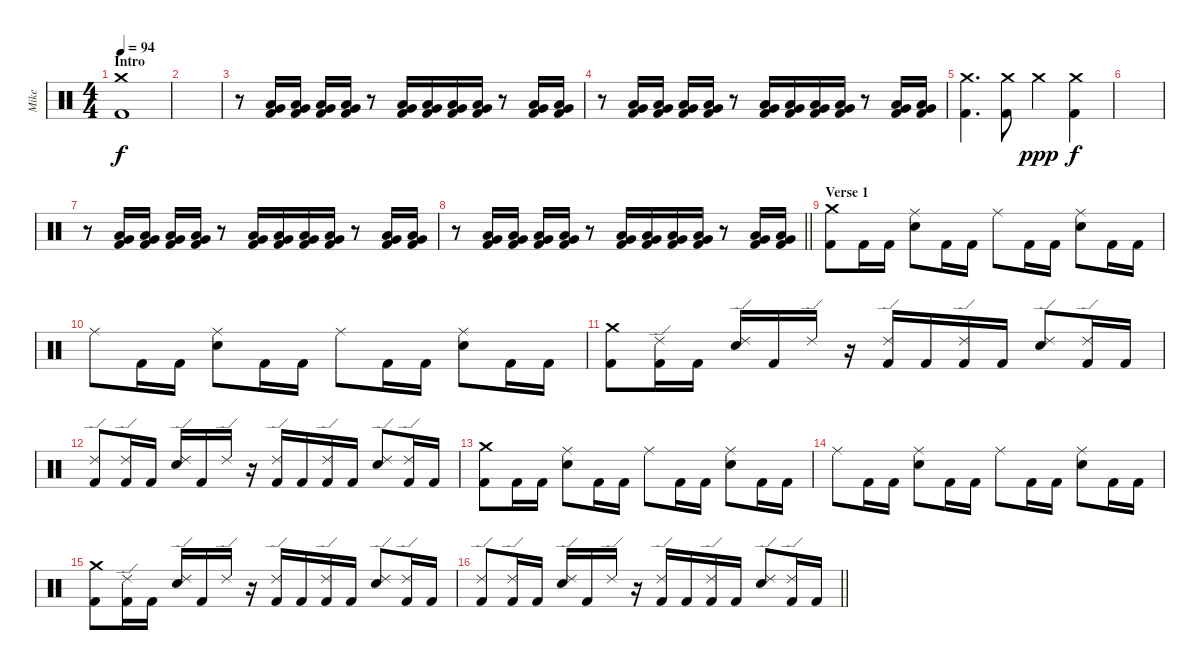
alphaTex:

\track ("Mike" "Mike") {instrument percussion}
\staff {score}
\articulation defaults
\ts (4 4)
\section ("" "Intro")
\tempo 94
\clef neutral
\ks c
("Crash medium (hit)" "Kick (hit) 2").1{dy f} |
|
r.8 ("Low Floor Tom (hit)" "Very Low Tom (hit)" "Kick (hit) 2").16 ("Low Floor Tom (hit)" "Very Low Tom (hit)" "Kick (hit) 2").16 ("Low Floor Tom (hit)" "Very Low Tom (hit)" "Kick (hit) 2").16 ("Low Floor Tom (hit)" "Very Low Tom (hit)" "Kick (hit) 2").16 r.8 ("Low Floor Tom (hit)" "Very Low Tom (hit)" "Kick (hit) 2").16 ("Low Floor Tom (hit)" "Very Low Tom (hit)" "Kick (hit) 2").16 ("Low Floor Tom (hit)" "Very Low Tom (hit)" "Kick (hit) 2").16 ("Low Floor Tom (hit)" "Very Low Tom (hit)" "Kick (hit) 2").16 r.8 ("Low Floor Tom (hit)" "Very Low Tom (hit)" "Kick (hit) 2").16 ("Low Floor Tom (hit)" "Very Low Tom (hit)" "Kick (hit) 2").16 |
r.8 ("Low Floor Tom (hit)" "Very Low Tom (hit)" "Kick (hit) 2").16 ("Low Floor Tom (hit)" "Very Low Tom (hit)" "Kick (hit) 2").16 ("Low Floor Tom (hit)" "Very Low Tom (hit)" "Kick (hit) 2").16 ("Low Floor Tom (hit)" "Very Low Tom (hit)" "Kick (hit) 2").16 r.8 ("Low Floor Tom (hit)" "Very Low Tom (hit)" "Kick (hit) 2").16 ("Low Floor Tom (hit)" "Very Low Tom (hit)" "Kick (hit) 2").16 ("Low Floor Tom (hit)" "Very Low Tom (hit)" "Kick (hit) 2").16 ("Low Floor Tom (hit)" "Very Low Tom (hit)" "Kick (hit) 2").16 r.8 ("Low Floor Tom (hit)" "Very Low Tom (hit)" "Kick (hit) 2").16 ("Low Floor Tom (hit)" "Very Low Tom (hit)" "Kick (hit) 2").16 |
("Crash medium (hit)" "Kick (hit) 2").4{d} ("Crash medium (hit)" "Kick (hit) 2").8 "Crash medium (hit)".4{dy ppp} ("Crash medium (hit)" "Kick (hit) 2").4{dy f} |
|
r.8 ("Low Floor Tom (hit)" "Very Low Tom (hit)" "Kick (hit) 2").16 ("Low Floor Tom (hit)" "Very Low Tom (hit)" "Kick (hit) 2").16 ("Low Floor Tom (hit)" "Very Low Tom (hit)" "Kick (hit) 2").16 ("Low Floor Tom (hit)" "Very Low Tom (hit)" "Kick (hit) 2").16 r.8 ("Low Floor Tom (hit)" "Very Low Tom (hit)" "Kick (hit) 2").16 ("Low Floor Tom (hit)" "Very Low Tom (hit)" "Kick (hit) 2").16 ("Low Floor Tom (hit)" "Very Low Tom (hit)" "Kick (hit) 2").16 ("Low Floor Tom (hit)" "Very Low Tom (hit)" "Kick (hit) 2").16 r.8 ("Low Floor Tom (hit)" "Very Low Tom (hit)" "Kick (hit) 2").16 ("Low Floor Tom (hit)" "Very Low Tom (hit)" "Kick (hit) 2").16 |
\barLineRight lightlight
r.8 ("Low Floor Tom (hit)" "Very Low Tom (hit)" "Kick (hit) 2").16 ("Low Floor Tom (hit)" "Very Low Tom (hit)" "Kick (hit) 2").16 ("Low Floor Tom (hit)" "Very Low Tom (hit)" "Kick (hit) 2").16 ("Low Floor Tom (hit)" "Very Low Tom (hit)" "Kick (hit) 2").16 r.8 ("Low Floor Tom (hit)" "Very Low Tom (hit)" "Kick (hit) 2").16 ("Low Floor Tom (hit)" "Very Low Tom (hit)" "Kick (hit) 2").16 ("Low Floor Tom (hit)" "Very Low Tom (hit)" "Kick (hit) 2").16 ("Low Floor Tom (hit)" "Very Low Tom (hit)" "Kick (hit) 2").16 r.8 ("Low Floor Tom (hit)" "Very Low Tom (hit)" "Kick (hit) 2").16 ("Low Floor Tom (hit)" "Very Low Tom (hit)" "Kick (hit) 2").16 |
\section ("" "Verse 1")
("Crash medium (hit)" "Kick (hit) 2").8 "Kick (hit) 2".16 "Kick (hit) 2".16 ("Ride (middle)" "Snare (hit) 2").8 "Kick (hit) 2".16 "Kick (hit) 2".16 "Ride (middle)".8 "Kick (hit) 2".16 "Kick (hit) 2".16 ("Ride (middle)" "Snare (hit) 2").8 "Kick (hit) 2".16 "Kick (hit) 2".16 |
"Ride (middle)".8 "Kick (hit) 2".16 "Kick (hit) 2".16 ("Ride (middle)" "Snare (hit) 2").8 "Kick (hit) 2".16 "Kick (hit) 2".16 "Ride (middle)".8 "Kick (hit) 2".16 "Kick (hit) 2".16 ("Ride (middle)" "Snare (hit) 2").8 "Kick (hit) 2".16 "Kick (hit) 2".16 |
("Crash medium (hit)" "Kick (hit) 2").8 ("Ride (edge) 2" "Kick (hit) 2").16 "Kick (hit) 2".16 ("Ride (edge) 2" "Snare (hit) 2").16 "Kick (hit) 2".16 "Ride (edge) 2".16 r.16 ("Ride (edge) 2" "Kick (hit) 2").16 "Kick (hit) 2".16 ("Ride (edge) 2" "Kick (hit) 2").16 "Kick (hit) 2".16 ("Ride (edge) 2" "Snare (hit) 2").8 ("Ride (edge) 2" "Kick (hit) 2").16 "Kick (hit) 2".16 |
("Ride (edge) 2" "Kick (hit) 2").8 ("Ride (edge) 2" "Kick (hit) 2").16 "Kick (hit) 2".16 ("Ride (edge) 2" "Snare (hit) 2").16 "Kick (hit) 2".16 "Ride (edge) 2".16 r.16 ("Ride (edge) 2" "Kick (hit) 2").16 "Kick (hit) 2".16 ("Ride (edge) 2" "Kick (hit) 2").16 "Kick (hit) 2".16 ("Ride (edge) 2" "Snare (hit) 2").8 ("Ride (edge) 2" "Kick (hit) 2").16 "Kick (hit) 2".16 |
("Crash medium (hit)" "Kick (hit) 2").8 "Kick (hit) 2".16 "Kick (hit) 2".16 ("Ride (middle)" "Snare (hit) 2").8 "Kick (hit) 2".16 "Kick (hit) 2".16 "Ride (middle)".8 "Kick (hit) 2".16 "Kick (hit) 2".16 ("Ride (middle)" "Snare (hit) 2").8 "Kick (hit) 2".16 "Kick (hit) 2".16 |
"Ride (middle)".8 "Kick (hit) 2".16 "Kick (hit) 2".16 ("Ride (middle)" "Snare (hit) 2").8 "Kick (hit) 2".16 "Kick (hit) 2".16 "Ride (middle)".8 "Kick (hit) 2".16 "Kick (hit) 2".16 ("Ride (middle)" "Snare (hit) 2").8 "Kick (hit) 2".16 "Kick (hit) 2".16 |
("Crash medium (hit)" "Kick (hit) 2").8 ("Ride (edge) 2" "Kick (hit) 2").16 "Kick (hit) 2".16 ("Ride (edge) 2" "Snare (hit) 2").16 "Kick (hit) 2".16 "Ride (edge) 2".16 r.16 ("Ride (edge) 2" "Kick (hit) 2").16 "Kick (hit) 2".16 ("Ride (edge) 2" "Kick (hit) 2").16 "Kick (hit) 2".16 ("Ride (edge) 2" "Snare (hit) 2").8 ("Ride (edge) 2" "Kick (hit) 2").16 "Kick (hit) 2".16 |
\barLineRight lightlight
("Ride (edge) 2" "Kick (hit) 2").8 ("Ride (edge) 2" "Kick (hit) 2").16 "Kick (hit) 2".16 ("Ride (edge) 2" "Snare (hit) 2").16 "Kick (hit) 2".16 "Ride (edge) 2".16 r.16 ("Ride (edge) 2" "Kick (hit) 2").16 "Kick (hit) 2".16 ("Ride (edge) 2" "Kick (hit) 2").16 "Kick (hit) 2".16 ("Ride (edge) 2" "Snare (hit) 2").8 ("Ride (edge) 2" "Kick (hit) 2").16 "Kick (hit) 2".16
